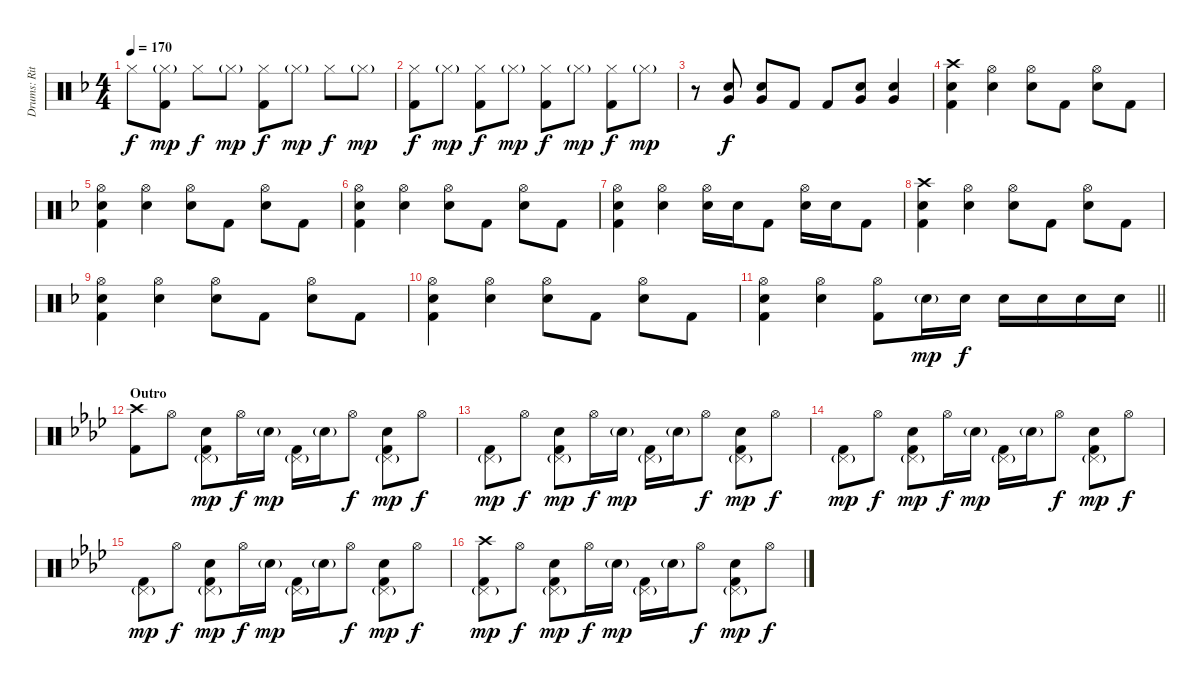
\track ("Drums: Ritsu Tainaka" "Drums: Rit") {instrument percussion}
\staff {score}
\articulation defaults
\ts (4 4)
\tempo 170
\clef neutral
\ks f "Hi-Hat (closed)".8{dy f}
("Hi-Hat (closed)"{g} "Kick (hit) 2").8{dy mp} "Hi-Hat (closed)".8{dy f} "Hi-Hat (closed)"{g}.8{dy mp} ("Hi-Hat (closed)" "Kick (hit) 2").8{dy f} "Hi-Hat (closed)"{g}.8{dy mp} "Hi-Hat (closed)".8{dy f} "Hi-Hat (closed)"{g}.8{dy mp} |
("Hi-Hat (closed)" "Kick (hit) 2").8{dy f} "Hi-Hat (closed)"{g}.8{dy mp} ("Hi-Hat (closed)" "Kick (hit) 2").8{dy f} "Hi-Hat (closed)"{g}.8{dy mp} ("Hi-Hat (closed)" "Kick (hit) 2").8{dy f} "Hi-Hat (closed)"{g}.8{dy mp} ("Hi-Hat (closed)" "Kick (hit) 2").8{dy f} "Hi-Hat (closed)"{g}.8{dy mp} |
r.8 ("Electric Snare (hit)" "Very Low Tom (hit)").8{dy f} ("Electric Snare (hit)" "Very Low Tom (hit)").8 "Kick (hit) 2".8 "Kick (hit) 2".8 ("Electric Snare (hit)" "Very Low Tom (hit)").8 ("Electric Snare (hit)" "Very Low Tom (hit)").4 |
("Crash high (hit)" "Electric Snare (hit)" "Kick (hit) 2").4 ("Hi-Hat (open)" "Electric Snare (hit)").4 ("Hi-Hat (open)" "Electric Snare (hit)").8 "Kick (hit) 2".8 ("Hi-Hat (open)" "Electric Snare (hit)").8 "Kick (hit) 2".8 |
("Hi-Hat (open)" "Electric Snare (hit)" "Kick (hit) 2").4 ("Hi-Hat (open)" "Electric Snare (hit)").4 ("Hi-Hat (open)" "Electric Snare (hit)").8 "Kick (hit) 2".8 ("Hi-Hat (open)" "Electric Snare (hit)").8 "Kick (hit) 2".8 |
("Hi-Hat (open)" "Electric Snare (hit)" "Kick (hit) 2").4 ("Hi-Hat (open)" "Electric Snare (hit)").4 ("Hi-Hat (open)" "Electric Snare (hit)").8 "Kick (hit) 2".8 ("Hi-Hat (open)" "Electric Snare (hit)").8 "Kick (hit) 2".8 |
("Hi-Hat (open)" "Electric Snare (hit)" "Kick (hit) 2").4 ("Hi-Hat (open)" "Electric Snare (hit)").4 ("Hi-Hat (open)" "Electric Snare (hit)").16 "Electric Snare (hit)".16 "Kick (hit) 2".8 ("Hi-Hat (open)" "Electric Snare (hit)").16 "Electric Snare (hit)".16 "Kick (hit) 2".8 |
("Crash high (hit)" "Electric Snare (hit)" "Kick (hit) 2").4 ("Hi-Hat (open)" "Electric Snare (hit)").4 ("Hi-Hat (open)" "Electric Snare (hit)").8 "Kick (hit) 2".8 ("Hi-Hat (open)" "Electric Snare (hit)").8 "Kick (hit) 2".8 |
("Hi-Hat (open)" "Electric Snare (hit)" "Kick (hit) 2").4 ("Hi-Hat (open)" "Electric Snare (hit)").4 ("Hi-Hat (open)" "Electric Snare (hit)").8 "Kick (hit) 2".8 ("Hi-Hat (open)" "Electric Snare (hit)").8 "Kick (hit) 2".8 |
("Hi-Hat (open)" "Electric Snare (hit)" "Kick (hit) 2").4 ("Hi-Hat (open)" "Electric Snare (hit)").4 ("Hi-Hat (open)" "Electric Snare (hit)").8 "Kick (hit) 2".8 ("Hi-Hat (open)" "Electric Snare (hit)").8 "Kick (hit) 2".8 |
\barLineRight lightlight
("Hi-Hat (open)" "Electric Snare (hit)" "Kick (hit) 2").4 ("Hi-Hat (open)" "Electric Snare (hit)").4 ("Hi-Hat (open)" "Kick (hit) 2").8 "Electric Snare (hit)"{g}.16{dy mp} "Electric Snare (hit)".16{dy f} "Electric Snare (hit)".16 "Electric Snare (hit)".16 "Electric Snare (hit)".16 "Electric Snare (hit)".16 |
\section ("" "Outro")
\ks fminor
("Crash high (hit)" "Kick (hit) 2").8 "Hi-Hat (open)".8 ("Pedal Hi-Hat (hit)"{g} "Electric Snare (hit)" "Kick (hit) 2").8{dy mp} "Hi-Hat (open)".16{dy f} "Electric Snare (hit)"{g}.16{dy mp} ("Pedal Hi-Hat (hit)"{g} "Kick (hit) 2").16 "Electric Snare (hit)"{g}.16 "Hi-Hat (open)".8{dy f} ("Pedal Hi-Hat (hit)"{g} "Electric Snare (hit)" "Kick (hit) 2").8{dy mp} "Hi-Hat (open)".8{dy f} |
("Pedal Hi-Hat (hit)"{g} "Kick (hit) 2").8{dy mp} "Hi-Hat (open)".8{dy f} ("Pedal Hi-Hat (hit)"{g} "Electric Snare (hit)" "Kick (hit) 2").8{dy mp} "Hi-Hat (open)".16{dy f} "Electric Snare (hit)"{g}.16{dy mp} ("Pedal Hi-Hat (hit)"{g} "Kick (hit) 2").16 "Electric Snare (hit)"{g}.16 "Hi-Hat (open)".8{dy f} ("Pedal Hi-Hat (hit)"{g} "Electric Snare (hit)" "Kick (hit) 2").8{dy mp} "Hi-Hat (open)".8{dy f} |
("Pedal Hi-Hat (hit)"{g} "Kick (hit) 2").8{dy mp} "Hi-Hat (open)".8{dy f} ("Pedal Hi-Hat (hit)"{g} "Electric Snare (hit)" "Kick (hit) 2").8{dy mp} "Hi-Hat (open)".16{dy f} "Electric Snare (hit)"{g}.16{dy mp} ("Pedal Hi-Hat (hit)"{g} "Kick (hit) 2").16 "Electric Snare (hit)"{g}.16 "Hi-Hat (open)".8{dy f} ("Pedal Hi-Hat (hit)"{g} "Electric Snare (hit)" "Kick (hit) 2").8{dy mp} "Hi-Hat (open)".8{dy f} |
("Pedal Hi-Hat (hit)"{g} "Kick (hit) 2").8{dy mp} "Hi-Hat (open)".8{dy f} ("Pedal Hi-Hat (hit)"{g} "Electric Snare (hit)" "Kick (hit) 2").8{dy mp} "Hi-Hat (open)".16{dy f} "Electric Snare (hit)"{g}.16{dy mp} ("Pedal Hi-Hat (hit)"{g} "Kick (hit) 2").16 "Electric Snare (hit)"{g}.16 "Hi-Hat (open)".8{dy f} ("Pedal Hi-Hat (hit)"{g} "Electric Snare (hit)" "Kick (hit) 2").8{dy mp} "Hi-Hat (open)".8{dy f} |
("Crash high (hit)" "Pedal Hi-Hat (hit)"{g} "Kick (hit) 2").8{dy mp} "Hi-Hat (open)".8{dy f} ("Pedal Hi-Hat (hit)"{g} "Electric Snare (hit)" "Kick (hit) 2").8{dy mp} "Hi-Hat (open)".16{dy f} "Electric Snare (hit)"{g}.16{dy mp} ("Pedal Hi-Hat (hit)"{g} "Kick (hit) 2").16 "Electric Snare (hit)"{g}.16 "Hi-Hat (open)".8{dy f} ("Pedal Hi-Hat (hit)"{g} "Electric Snare (hit)" "Kick (hit) 2").8{dy mp} "Hi-Hat (open)".8{dy f}
